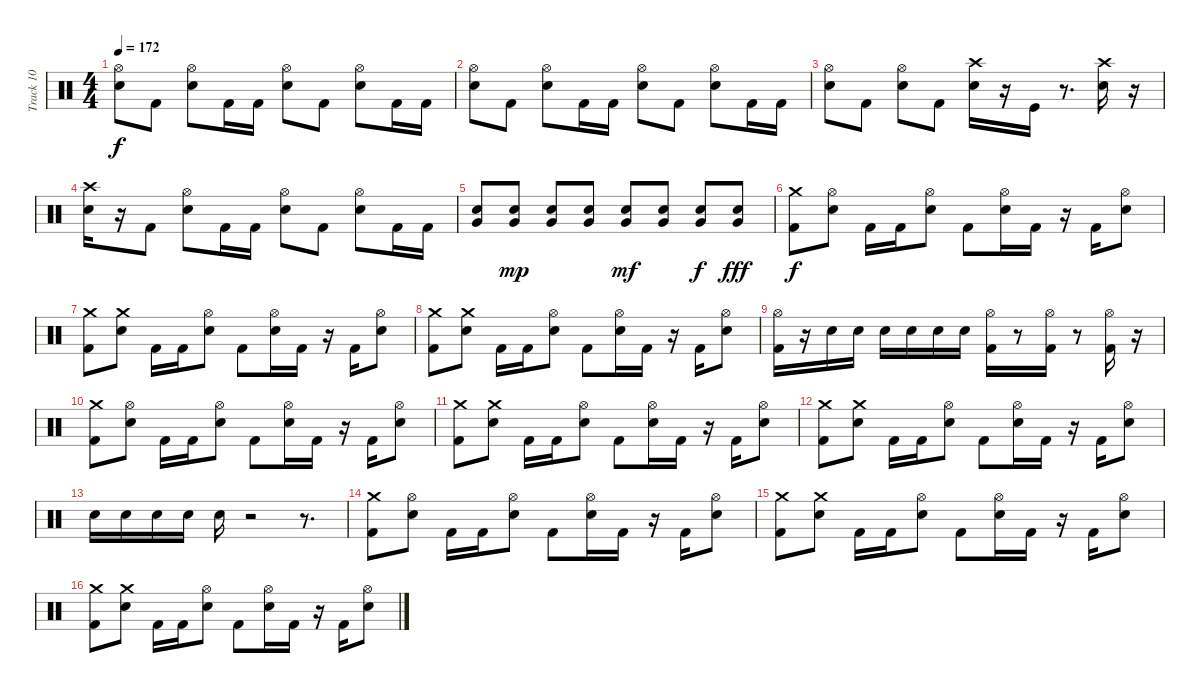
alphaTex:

\track ("Track 10" "Track 10") {instrument percussion}
\staff {score}
\articulation defaults
\ts (4 4)
\tempo 172
\clef neutral
\ks c
("Hi-Hat (open)" "Electric Snare (hit)").8{dy f} "Kick (hit) 2".8 ("Hi-Hat (open)" "Electric Snare (hit)").8 "Kick (hit) 2".16 "Kick (hit) 2".16 ("Hi-Hat (open)" "Electric Snare (hit)").8 "Kick (hit) 2".8 ("Hi-Hat (open)" "Electric Snare (hit)").8 "Kick (hit) 2".16 "Kick (hit) 2".16 |
("Hi-Hat (open)" "Electric Snare (hit)").8 "Kick (hit) 2".8 ("Hi-Hat (open)" "Electric Snare (hit)").8 "Kick (hit) 2".16 "Kick (hit) 2".16 ("Hi-Hat (open)" "Electric Snare (hit)").8 "Kick (hit) 2".8 ("Hi-Hat (open)" "Electric Snare (hit)").8 "Kick (hit) 2".16 "Kick (hit) 2".16 |
("Hi-Hat (open)" "Electric Snare (hit)").8 "Kick (hit) 2".8 ("Hi-Hat (open)" "Electric Snare (hit)").8 "Kick (hit) 2".8 ("Crash high (hit)" "Electric Snare (hit)").16 r.16 "Kick (hit)".16 r.8{d} ("Crash high (hit)" "Electric Snare (hit)").16 r.16 |
("Crash high (hit)" "Electric Snare (hit)").16 r.16 "Kick (hit) 2".8 ("Hi-Hat (open)" "Electric Snare (hit)").8 "Kick (hit) 2".16 "Kick (hit) 2".16 ("Hi-Hat (open)" "Electric Snare (hit)").8 "Kick (hit) 2".8 ("Hi-Hat (open)" "Electric Snare (hit)").8 "Kick (hit) 2".16 "Kick (hit) 2".16 |
("Snare (hit) 2" "Very Low Tom (hit)").8 ("Snare (hit) 2" "Very Low Tom (hit)").8{dy mp} ("Snare (hit) 2" "Very Low Tom (hit)").8 ("Snare (hit) 2" "Very Low Tom (hit)").8 ("Snare (hit) 2" "Very Low Tom (hit)").8{dy mf} ("Snare (hit) 2" "Very Low Tom (hit)").8 ("Snare (hit) 2" "Very Low Tom (hit)").8{dy f} ("Snare (hit) 2" "Very Low Tom (hit)").8{dy fff} |
("Crash medium (hit)" "Kick (hit) 2").8{dy f} ("Hi-Hat (open)" "Electric Snare (hit)").8 "Kick (hit) 2".16 "Kick (hit) 2".16 ("Hi-Hat (open)" "Electric Snare (hit)").8 "Kick (hit) 2".8 ("Hi-Hat (open)" "Electric Snare (hit)").16 "Kick (hit) 2".16 r.16 "Kick (hit) 2".16 ("Hi-Hat (open)" "Electric Snare (hit)").8 |
("Crash medium (hit)" "Kick (hit) 2").8 ("Crash medium (hit)" "Electric Snare (hit)").8 "Kick (hit) 2".16 "Kick (hit) 2".16 ("Hi-Hat (open)" "Electric Snare (hit)").8 "Kick (hit) 2".8 ("Hi-Hat (open)" "Electric Snare (hit)").16 "Kick (hit) 2".16 r.16 "Kick (hit) 2".16 ("Hi-Hat (open)" "Electric Snare (hit)").8 |
("Crash medium (hit)" "Kick (hit) 2").8 ("Crash medium (hit)" "Electric Snare (hit)").8 "Kick (hit) 2".16 "Kick (hit) 2".16 ("Hi-Hat (open)" "Electric Snare (hit)").8 "Kick (hit) 2".8 ("Hi-Hat (open)" "Electric Snare (hit)").16 "Kick (hit) 2".16 r.16 "Kick (hit) 2".16 ("Hi-Hat (open)" "Electric Snare (hit)").8 |
("Hi-Hat (open)" "Kick (hit) 2").16 r.16 "Electric Snare (hit)".16 "Electric Snare (hit)".16 "Electric Snare (hit)".16 "Electric Snare (hit)".16 "Electric Snare (hit)".16 "Electric Snare (hit)".16 ("Hi-Hat (open)" "Kick (hit) 2").16 r.8 ("Hi-Hat (open)" "Kick (hit) 2").16 r.8 ("Hi-Hat (open)" "Kick (hit) 2").16 r.16 |
("Crash medium (hit)" "Kick (hit) 2").8 ("Hi-Hat (open)" "Electric Snare (hit)").8 "Kick (hit) 2".16 "Kick (hit) 2".16 ("Hi-Hat (open)" "Electric Snare (hit)").8 "Kick (hit) 2".8 ("Hi-Hat (open)" "Electric Snare (hit)").16 "Kick (hit) 2".16 r.16 "Kick (hit) 2".16 ("Hi-Hat (open)" "Electric Snare (hit)").8 |
("Crash medium (hit)" "Kick (hit) 2").8 ("Crash medium (hit)" "Electric Snare (hit)").8 "Kick (hit) 2".16 "Kick (hit) 2".16 ("Hi-Hat (open)" "Electric Snare (hit)").8 "Kick (hit) 2".8 ("Hi-Hat (open)" "Electric Snare (hit)").16 "Kick (hit) 2".16 r.16 "Kick (hit) 2".16 ("Hi-Hat (open)" "Electric Snare (hit)").8 |
("Crash medium (hit)" "Kick (hit) 2").8 ("Crash medium (hit)" "Electric Snare (hit)").8 "Kick (hit) 2".16 "Kick (hit) 2".16 ("Hi-Hat (open)" "Electric Snare (hit)").8 "Kick (hit) 2".8 ("Hi-Hat (open)" "Electric Snare (hit)").16 "Kick (hit) 2".16 r.16 "Kick (hit) 2".16 ("Hi-Hat (open)" "Electric Snare (hit)").8 |
"Electric Snare (hit)".16 "Electric Snare (hit)".16 "Electric Snare (hit)".16 "Electric Snare (hit)".16 "Electric Snare (hit)".16 r.2 r.8{d} |
("Crash medium (hit)" "Kick (hit) 2").8 ("Hi-Hat (open)" "Electric Snare (hit)").8 "Kick (hit) 2".16 "Kick (hit) 2".16 ("Hi-Hat (open)" "Electric Snare (hit)").8 "Kick (hit) 2".8 ("Hi-Hat (open)" "Electric Snare (hit)").16 "Kick (hit) 2".16 r.16 "Kick (hit) 2".16 ("Hi-Hat (open)" "Electric Snare (hit)").8 |
("Crash medium (hit)" "Kick (hit) 2").8 ("Crash medium (hit)" "Electric Snare (hit)").8 "Kick (hit) 2".16 "Kick (hit) 2".16 ("Hi-Hat (open)" "Electric Snare (hit)").8 "Kick (hit) 2".8 ("Hi-Hat (open)" "Electric Snare (hit)").16 "Kick (hit) 2".16 r.16 "Kick (hit) 2".16 ("Hi-Hat (open)" "Electric Snare (hit)").8 |
("Crash medium (hit)" "Kick (hit) 2").8 ("Crash medium (hit)" "Electric Snare (hit)").8 "Kick (hit) 2".16 "Kick (hit) 2".16 ("Hi-Hat (open)" "Electric Snare (hit)").8 "Kick (hit) 2".8 ("Hi-Hat (open)" "Electric Snare (hit)").16 "Kick (hit) 2".16 r.16 "Kick (hit) 2".16 ("Hi-Hat (open)" "Electric Snare (hit)").8
